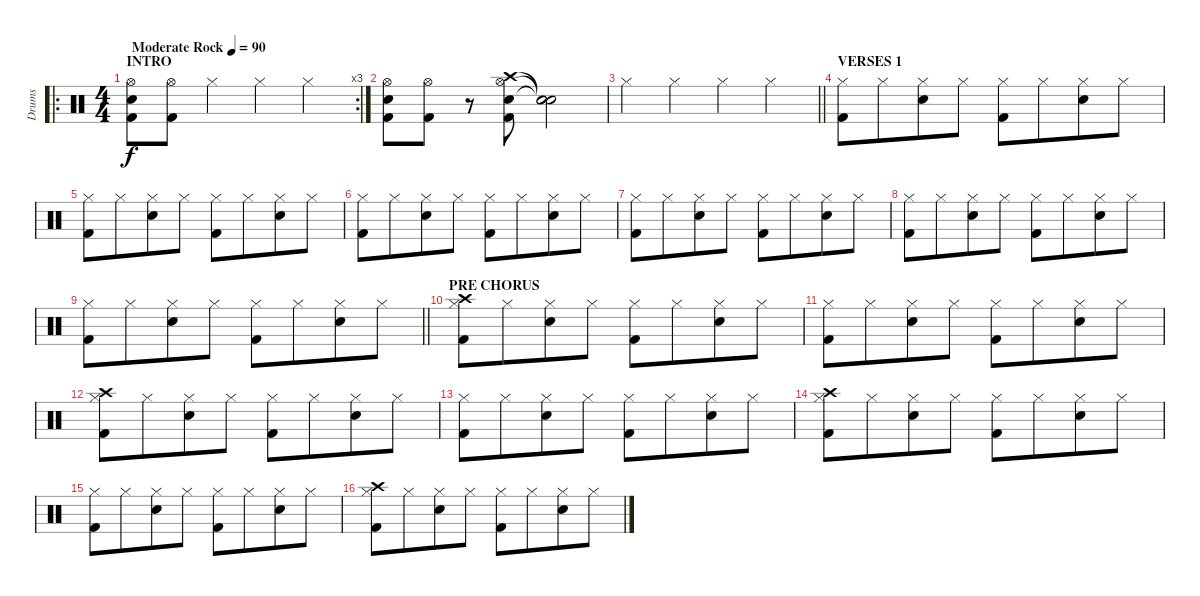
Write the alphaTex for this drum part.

\track ("Drums" "Drums") {instrument percussion}
\staff {score}
\articulation defaults
\ro
\rc 3
\ts (4 4)
\section ("" "INTRO")
\tempo (90 "Moderate Rock")
\clef neutral
\ks c
("Hi-Hat (open)" "Electric Snare (hit)" "Kick (hit) 2").8{dy f} ("Hi-Hat (open)" "Kick (hit) 2").8 "Hi-Hat (closed)".4 "Hi-Hat (closed)".4 "Hi-Hat (closed)".4 |
("Hi-Hat (open)" "Electric Snare (hit)" "Kick (hit) 2").8 ("Hi-Hat (open)" "Kick (hit) 2").8 r.8 ("Crash high (hit)" "Hi-Hat (open)" "Electric Snare (hit)" "Kick (hit) 2").8 ("Snare (hit)"{t} "Snare (hit)"{t} "Snare (hit)"{t}).2 |
\barLineRight lightlight "Hi-Hat (closed)".4 "Hi-Hat (closed)".4 "Hi-Hat (closed)".4 "Hi-Hat (closed)".4
|
\section ("" "VERSES 1")
("Hi-Hat (closed)" "Kick (hit) 2").8 "Hi-Hat (closed)".8{beam merge} ("Hi-Hat (closed)" "Electric Snare (hit)").8 "Hi-Hat (closed)".8 ("Hi-Hat (closed)" "Kick (hit) 2").8 "Hi-Hat (closed)".8{beam merge} ("Hi-Hat (closed)" "Electric Snare (hit)").8 "Hi-Hat (closed)".8 |
("Hi-Hat (closed)" "Kick (hit) 2").8 "Hi-Hat (closed)".8{beam merge} ("Hi-Hat (closed)" "Electric Snare (hit)").8 "Hi-Hat (closed)".8 ("Hi-Hat (closed)" "Kick (hit) 2").8 "Hi-Hat (closed)".8{beam merge} ("Hi-Hat (closed)" "Electric Snare (hit)").8 "Hi-Hat (closed)".8 |
("Hi-Hat (closed)" "Kick (hit) 2").8 "Hi-Hat (closed)".8{beam merge} ("Hi-Hat (closed)" "Electric Snare (hit)").8 "Hi-Hat (closed)".8 ("Hi-Hat (closed)" "Kick (hit) 2").8 "Hi-Hat (closed)".8{beam merge} ("Hi-Hat (closed)" "Electric Snare (hit)").8 "Hi-Hat (closed)".8 |
("Hi-Hat (closed)" "Kick (hit) 2").8 "Hi-Hat (closed)".8{beam merge} ("Hi-Hat (closed)" "Electric Snare (hit)").8 "Hi-Hat (closed)".8 ("Hi-Hat (closed)" "Kick (hit) 2").8 "Hi-Hat (closed)".8{beam merge} ("Hi-Hat (closed)" "Electric Snare (hit)").8 "Hi-Hat (closed)".8 |
("Hi-Hat (closed)" "Kick (hit) 2").8 "Hi-Hat (closed)".8{beam merge} ("Hi-Hat (closed)" "Electric Snare (hit)").8 "Hi-Hat (closed)".8 ("Hi-Hat (closed)" "Kick (hit) 2").8 "Hi-Hat (closed)".8{beam merge} ("Hi-Hat (closed)" "Electric Snare (hit)").8 "Hi-Hat (closed)".8 |
\barLineRight lightlight
("Hi-Hat (closed)" "Kick (hit) 2").8 "Hi-Hat (closed)".8{beam merge} ("Hi-Hat (closed)" "Electric Snare (hit)").8 "Hi-Hat (closed)".8 ("Hi-Hat (closed)" "Kick (hit) 2").8 "Hi-Hat (closed)".8{beam merge} ("Hi-Hat (closed)" "Electric Snare (hit)").8 "Hi-Hat (closed)".8 |
\section ("" "PRE CHORUS")
("Crash high (hit)" "Hi-Hat (closed)" "Kick (hit) 2").8 "Hi-Hat (closed)".8{beam merge} ("Hi-Hat (closed)" "Electric Snare (hit)").8 "Hi-Hat (closed)".8 ("Hi-Hat (closed)" "Kick (hit) 2").8 "Hi-Hat (closed)".8{beam merge} ("Hi-Hat (closed)" "Electric Snare (hit)").8 "Hi-Hat (closed)".8 |
("Hi-Hat (closed)" "Kick (hit) 2").8 "Hi-Hat (closed)".8{beam merge} ("Hi-Hat (closed)" "Electric Snare (hit)").8 "Hi-Hat (closed)".8 ("Hi-Hat (closed)" "Kick (hit) 2").8 "Hi-Hat (closed)".8{beam merge} ("Hi-Hat (closed)" "Electric Snare (hit)").8 "Hi-Hat (closed)".8 |
("Crash high (hit)" "Hi-Hat (closed)" "Kick (hit) 2").8 "Hi-Hat (closed)".8{beam merge} ("Hi-Hat (closed)" "Electric Snare (hit)").8 "Hi-Hat (closed)".8 ("Hi-Hat (closed)" "Kick (hit) 2").8 "Hi-Hat (closed)".8{beam merge} ("Hi-Hat (closed)" "Electric Snare (hit)").8 "Hi-Hat (closed)".8 |
("Hi-Hat (closed)" "Kick (hit) 2").8 "Hi-Hat (closed)".8{beam merge} ("Hi-Hat (closed)" "Electric Snare (hit)").8 "Hi-Hat (closed)".8 ("Hi-Hat (closed)" "Kick (hit) 2").8 "Hi-Hat (closed)".8{beam merge} ("Hi-Hat (closed)" "Electric Snare (hit)").8 "Hi-Hat (closed)".8 |
("Crash high (hit)" "Hi-Hat (closed)" "Kick (hit) 2").8 "Hi-Hat (closed)".8{beam merge} ("Hi-Hat (closed)" "Electric Snare (hit)").8 "Hi-Hat (closed)".8 ("Hi-Hat (closed)" "Kick (hit) 2").8 "Hi-Hat (closed)".8{beam merge} ("Hi-Hat (closed)" "Electric Snare (hit)").8 "Hi-Hat (closed)".8 |
("Hi-Hat (closed)" "Kick (hit) 2").8 "Hi-Hat (closed)".8{beam merge} ("Hi-Hat (closed)" "Electric Snare (hit)").8 "Hi-Hat (closed)".8 ("Hi-Hat (closed)" "Kick (hit) 2").8 "Hi-Hat (closed)".8{beam merge} ("Hi-Hat (closed)" "Electric Snare (hit)").8 "Hi-Hat (closed)".8 |
("Crash high (hit)" "Hi-Hat (closed)" "Kick (hit) 2").8 "Hi-Hat (closed)".8{beam merge} ("Hi-Hat (closed)" "Electric Snare (hit)").8 "Hi-Hat (closed)".8 ("Hi-Hat (closed)" "Kick (hit) 2").8 "Hi-Hat (closed)".8{beam merge} ("Hi-Hat (closed)" "Electric Snare (hit)").8 "Hi-Hat (closed)".8
